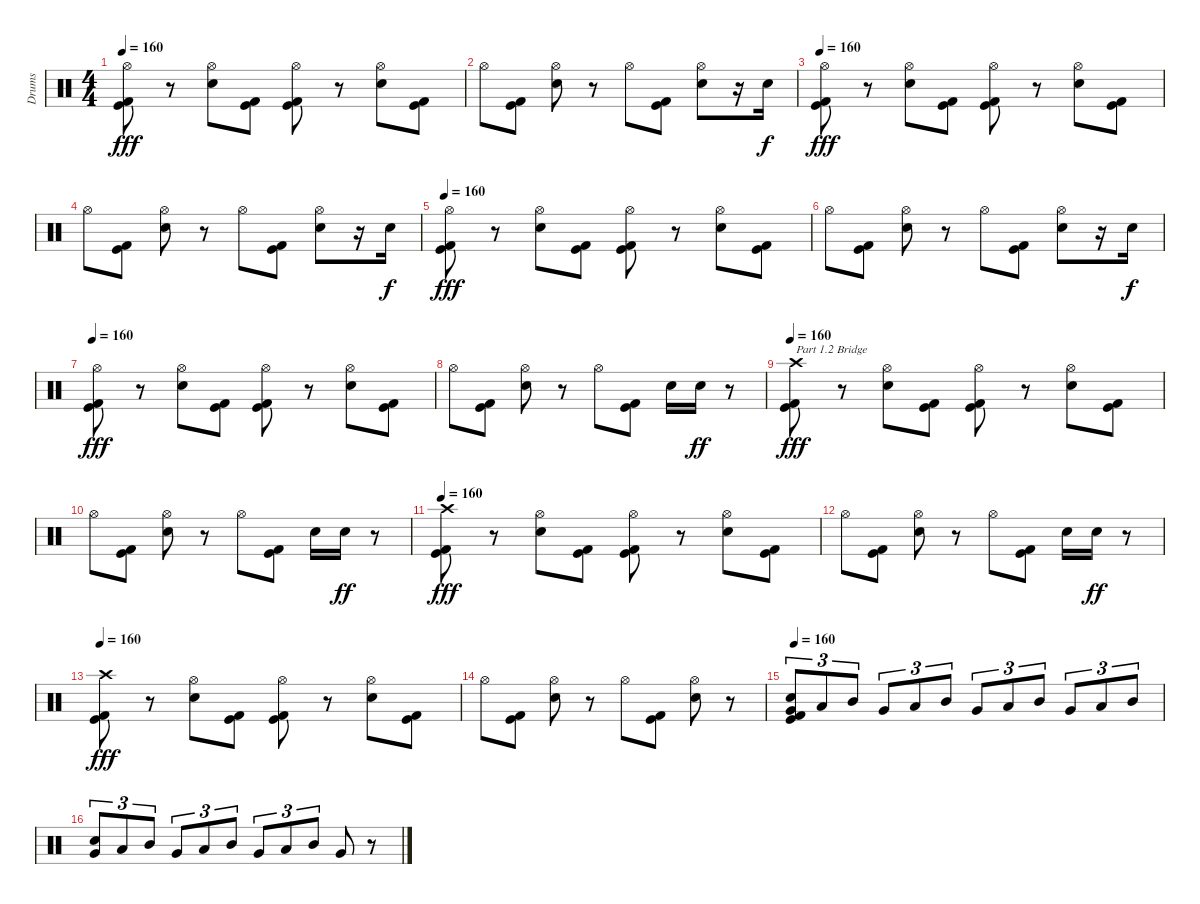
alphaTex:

\track ("Drums" "Drums") {instrument percussion}
\staff {score}
\articulation defaults
\ts (4 4)
\tempo 160
\clef neutral
\ks c
("Kick (hit)" "Kick (hit) 2" "Hi-Hat (open)").8{dy fff} r.8 ("Electric Snare (hit)" "Hi-Hat (open)").8 ("Kick (hit)" "Kick (hit) 2").8 ("Kick (hit)" "Kick (hit) 2" "Hi-Hat (open)").8 r.8 ("Electric Snare (hit)" "Hi-Hat (open)").8 ("Kick (hit)" "Kick (hit) 2").8 |
"Hi-Hat (open)".8 ("Kick (hit)" "Kick (hit) 2").8 ("Electric Snare (hit)" "Hi-Hat (open)").8 r.8 "Hi-Hat (open)".8 ("Kick (hit)" "Kick (hit) 2").8 ("Electric Snare (hit)" "Hi-Hat (open)").8 r.16 "Electric Snare (hit)".16{dy f} |
\tempo 160
("Kick (hit)" "Kick (hit) 2" "Hi-Hat (open)").8{dy fff} r.8 ("Electric Snare (hit)" "Hi-Hat (open)").8 ("Kick (hit)" "Kick (hit) 2").8 ("Kick (hit)" "Kick (hit) 2" "Hi-Hat (open)").8 r.8 ("Electric Snare (hit)" "Hi-Hat (open)").8 ("Kick (hit)" "Kick (hit) 2").8 |
"Hi-Hat (open)".8 ("Kick (hit)" "Kick (hit) 2").8 ("Electric Snare (hit)" "Hi-Hat (open)").8 r.8 "Hi-Hat (open)".8 ("Kick (hit)" "Kick (hit) 2").8 ("Electric Snare (hit)" "Hi-Hat (open)").8 r.16 "Electric Snare (hit)".16{dy f} |
\tempo 160
("Kick (hit)" "Kick (hit) 2" "Hi-Hat (open)").8{dy fff} r.8 ("Electric Snare (hit)" "Hi-Hat (open)").8 ("Kick (hit)" "Kick (hit) 2").8 ("Kick (hit)" "Kick (hit) 2" "Hi-Hat (open)").8 r.8 ("Electric Snare (hit)" "Hi-Hat (open)").8 ("Kick (hit)" "Kick (hit) 2").8 |
"Hi-Hat (open)".8 ("Kick (hit)" "Kick (hit) 2").8 ("Electric Snare (hit)" "Hi-Hat (open)").8 r.8 "Hi-Hat (open)".8 ("Kick (hit)" "Kick (hit) 2").8 ("Electric Snare (hit)" "Hi-Hat (open)").8 r.16 "Electric Snare (hit)".16{dy f} |
\tempo 160
("Kick (hit)" "Kick (hit) 2" "Hi-Hat (open)").8{dy fff} r.8 ("Electric Snare (hit)" "Hi-Hat (open)").8 ("Kick (hit)" "Kick (hit) 2").8 ("Kick (hit)" "Kick (hit) 2" "Hi-Hat (open)").8 r.8 ("Electric Snare (hit)" "Hi-Hat (open)").8 ("Kick (hit)" "Kick (hit) 2").8 |
"Hi-Hat (open)".8 ("Kick (hit)" "Kick (hit) 2").8 ("Electric Snare (hit)" "Hi-Hat (open)").8 r.8 "Hi-Hat (open)".8 ("Kick (hit)" "Kick (hit) 2").8 "Electric Snare (hit)".16 "Electric Snare (hit)".16{dy ff} r.8 |
\tempo 160
("Kick (hit)" "Kick (hit) 2" "Crash high (hit)").8{txt "Part 1.2 Bridge" dy fff} r.8 ("Electric Snare (hit)" "Hi-Hat (open)").8 ("Kick (hit)" "Kick (hit) 2").8 ("Kick (hit)" "Kick (hit) 2" "Hi-Hat (open)").8 r.8 ("Electric Snare (hit)" "Hi-Hat (open)").8 ("Kick (hit)" "Kick (hit) 2").8 |
"Hi-Hat (open)".8 ("Kick (hit)" "Kick (hit) 2").8 ("Electric Snare (hit)" "Hi-Hat (open)").8 r.8 "Hi-Hat (open)".8 ("Kick (hit)" "Kick (hit) 2").8 "Electric Snare (hit)".16 "Electric Snare (hit)".16{dy ff} r.8 |
\tempo 160
("Kick (hit)" "Kick (hit) 2" "Crash high (hit)").8{dy fff} r.8 ("Electric Snare (hit)" "Hi-Hat (open)").8 ("Kick (hit)" "Kick (hit) 2").8 ("Kick (hit)" "Kick (hit) 2" "Hi-Hat (open)").8 r.8 ("Electric Snare (hit)" "Hi-Hat (open)").8 ("Kick (hit)" "Kick (hit) 2").8 |
"Hi-Hat (open)".8 ("Kick (hit)" "Kick (hit) 2").8 ("Electric Snare (hit)" "Hi-Hat (open)").8 r.8 "Hi-Hat (open)".8 ("Kick (hit)" "Kick (hit) 2").8 "Electric Snare (hit)".16 "Electric Snare (hit)".16{dy ff} r.8 |
\tempo 160
("Kick (hit)" "Kick (hit) 2" "Crash high (hit)").8{dy fff} r.8 ("Electric Snare (hit)" "Hi-Hat (open)").8 ("Kick (hit)" "Kick (hit) 2").8 ("Kick (hit)" "Kick (hit) 2" "Hi-Hat (open)").8 r.8 ("Electric Snare (hit)" "Hi-Hat (open)").8 ("Kick (hit)" "Kick (hit) 2").8 |
"Hi-Hat (open)".8 ("Kick (hit)" "Kick (hit) 2").8 ("Electric Snare (hit)" "Hi-Hat (open)").8 r.8 "Hi-Hat (open)".8 ("Kick (hit)" "Kick (hit) 2").8 ("Electric Snare (hit)" "Hi-Hat (open)").8 r.8 |
\tempo 160
("Very Low Tom (hit)" "Electric Snare (hit)" "Kick (hit)" "Kick (hit) 2").8{tu (3 2) volume 16} "Low Tom (hit)".8{tu (3 2)} "Mid Tom (hit)".8{tu (3 2)} "Very Low Tom (hit)".8{tu (3 2)} "Low Tom (hit)".8{tu (3 2)} "Mid Tom (hit)".8{tu (3 2)} "Very Low Tom (hit)".8{tu (3 2)} "Low Tom (hit)".8{tu (3 2)} "Mid Tom (hit)".8{tu (3 2)} "Very Low Tom (hit)".8{tu (3 2)} "Low Tom (hit)".8{tu (3 2)} "Mid Tom (hit)".8{tu (3 2)} |
("Very Low Tom (hit)" "Electric Snare (hit)").8{tu (3 2)} "Low Tom (hit)".8{tu (3 2)} "Mid Tom (hit)".8{tu (3 2)} "Very Low Tom (hit)".8{tu (3 2)} "Low Tom (hit)".8{tu (3 2)} "Mid Tom (hit)".8{tu (3 2)} "Very Low Tom (hit)".8{tu (3 2)} "Low Tom (hit)".8{tu (3 2)} "Mid Tom (hit)".8{tu (3 2)} "Very Low Tom (hit)".8 r.8
